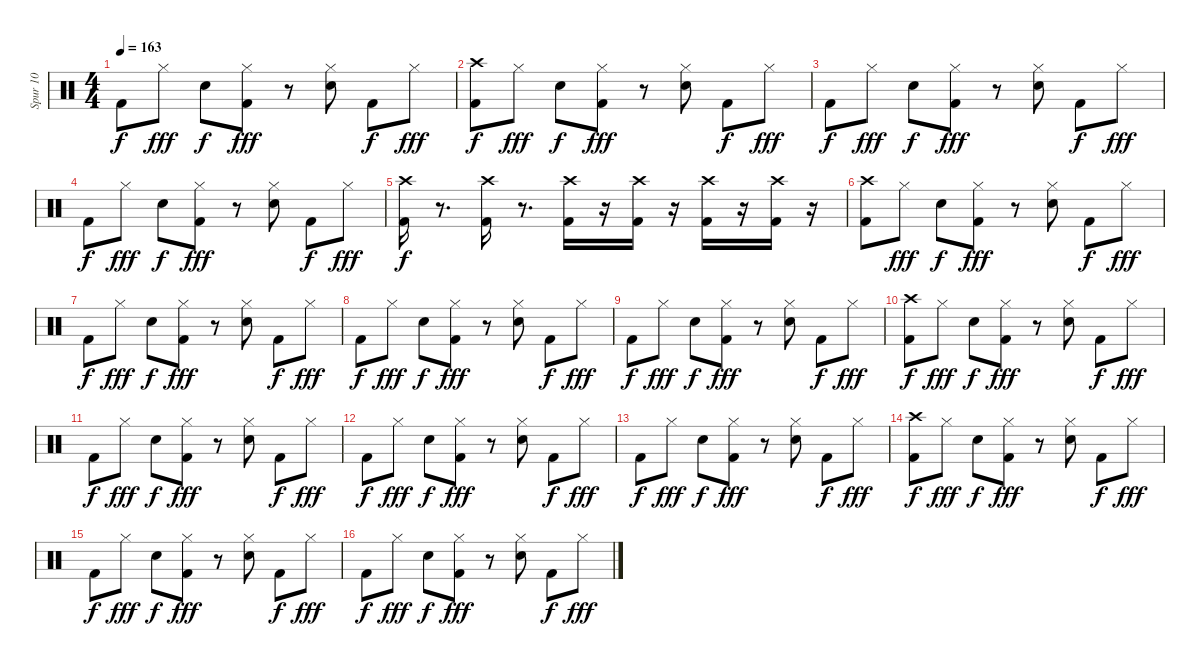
\track ("Spur 10" "Spur 10") {instrument percussion}
\staff {score}
\articulation defaults
\ts (4 4)
\tempo 163
\clef neutral
\ks c "Kick (hit) 2".8{dy f} "Hi-Hat (closed)".8{dy fff} "Snare (hit) 2".8{dy f}
("Hi-Hat (closed)" "Kick (hit) 2").8{dy fff} r.8 ("Hi-Hat (closed)" "Snare (hit) 2").8 "Kick (hit) 2".8{dy f} "Hi-Hat (closed)".8{dy fff} |
("Crash high (hit)" "Kick (hit) 2").8{dy f} "Hi-Hat (closed)".8{dy fff} "Snare (hit) 2".8{dy f} ("Hi-Hat (closed)" "Kick (hit) 2").8{dy fff} r.8 ("Hi-Hat (closed)" "Snare (hit) 2").8 "Kick (hit) 2".8{dy f} "Hi-Hat (closed)".8{dy fff} |
"Kick (hit) 2".8{dy f} "Hi-Hat (closed)".8{dy fff} "Snare (hit) 2".8{dy f} ("Hi-Hat (closed)" "Kick (hit) 2").8{dy fff} r.8 ("Hi-Hat (closed)" "Snare (hit) 2").8 "Kick (hit) 2".8{dy f} "Hi-Hat (closed)".8{dy fff} |
"Kick (hit) 2".8{dy f} "Hi-Hat (closed)".8{dy fff} "Snare (hit) 2".8{dy f} ("Hi-Hat (closed)" "Kick (hit) 2").8{dy fff} r.8 ("Hi-Hat (closed)" "Snare (hit) 2").8 "Kick (hit) 2".8{dy f} "Hi-Hat (closed)".8{dy fff} |
("Kick (hit) 2" "Crash high (hit)").16{dy f} r.8{d} ("Kick (hit) 2" "Crash high (hit)").16 r.8{d} ("Kick (hit) 2" "Crash high (hit)").16 r.16 ("Kick (hit) 2" "Crash high (hit)").16 r.16 ("Kick (hit) 2" "Crash high (hit)").16 r.16 ("Kick (hit) 2" "Crash high (hit)").16 r.16 |
("Crash high (hit)" "Kick (hit) 2").8 "Hi-Hat (closed)".8{dy fff} "Snare (hit) 2".8{dy f} ("Hi-Hat (closed)" "Kick (hit) 2").8{dy fff} r.8 ("Hi-Hat (closed)" "Snare (hit) 2").8 "Kick (hit) 2".8{dy f} "Hi-Hat (closed)".8{dy fff} |
"Kick (hit) 2".8{dy f} "Hi-Hat (closed)".8{dy fff} "Snare (hit) 2".8{dy f} ("Hi-Hat (closed)" "Kick (hit) 2").8{dy fff} r.8 ("Hi-Hat (closed)" "Snare (hit) 2").8 "Kick (hit) 2".8{dy f} "Hi-Hat (closed)".8{dy fff} |
"Kick (hit) 2".8{dy f} "Hi-Hat (closed)".8{dy fff} "Snare (hit) 2".8{dy f} ("Hi-Hat (closed)" "Kick (hit) 2").8{dy fff} r.8 ("Hi-Hat (closed)" "Snare (hit) 2").8 "Kick (hit) 2".8{dy f} "Hi-Hat (closed)".8{dy fff} |
"Kick (hit) 2".8{dy f} "Hi-Hat (closed)".8{dy fff} "Snare (hit) 2".8{dy f} ("Hi-Hat (closed)" "Kick (hit) 2").8{dy fff} r.8 ("Hi-Hat (closed)" "Snare (hit) 2").8 "Kick (hit) 2".8{dy f} "Hi-Hat (closed)".8{dy fff} |
("Crash high (hit)" "Kick (hit) 2").8{dy f} "Hi-Hat (closed)".8{dy fff} "Snare (hit) 2".8{dy f} ("Hi-Hat (closed)" "Kick (hit) 2").8{dy fff} r.8 ("Hi-Hat (closed)" "Snare (hit) 2").8 "Kick (hit) 2".8{dy f} "Hi-Hat (closed)".8{dy fff} |
"Kick (hit) 2".8{dy f} "Hi-Hat (closed)".8{dy fff} "Snare (hit) 2".8{dy f} ("Hi-Hat (closed)" "Kick (hit) 2").8{dy fff} r.8 ("Hi-Hat (closed)" "Snare (hit) 2").8 "Kick (hit) 2".8{dy f} "Hi-Hat (closed)".8{dy fff} |
"Kick (hit) 2".8{dy f} "Hi-Hat (closed)".8{dy fff} "Snare (hit) 2".8{dy f} ("Hi-Hat (closed)" "Kick (hit) 2").8{dy fff} r.8 ("Hi-Hat (closed)" "Snare (hit) 2").8 "Kick (hit) 2".8{dy f} "Hi-Hat (closed)".8{dy fff} |
"Kick (hit) 2".8{dy f} "Hi-Hat (closed)".8{dy fff} "Snare (hit) 2".8{dy f} ("Hi-Hat (closed)" "Kick (hit) 2").8{dy fff} r.8 ("Hi-Hat (closed)" "Snare (hit) 2").8 "Kick (hit) 2".8{dy f} "Hi-Hat (closed)".8{dy fff} |
("Crash high (hit)" "Kick (hit) 2").8{dy f} "Hi-Hat (closed)".8{dy fff} "Snare (hit) 2".8{dy f} ("Hi-Hat (closed)" "Kick (hit) 2").8{dy fff} r.8 ("Hi-Hat (closed)" "Snare (hit) 2").8 "Kick (hit) 2".8{dy f} "Hi-Hat (closed)".8{dy fff} |
"Kick (hit) 2".8{dy f} "Hi-Hat (closed)".8{dy fff} "Snare (hit) 2".8{dy f} ("Hi-Hat (closed)" "Kick (hit) 2").8{dy fff} r.8 ("Hi-Hat (closed)" "Snare (hit) 2").8 "Kick (hit) 2".8{dy f} "Hi-Hat (closed)".8{dy fff} |
"Kick (hit) 2".8{dy f} "Hi-Hat (closed)".8{dy fff} "Snare (hit) 2".8{dy f} ("Hi-Hat (closed)" "Kick (hit) 2").8{dy fff} r.8 ("Hi-Hat (closed)" "Snare (hit) 2").8 "Kick (hit) 2".8{dy f} "Hi-Hat (closed)".8{dy fff}
